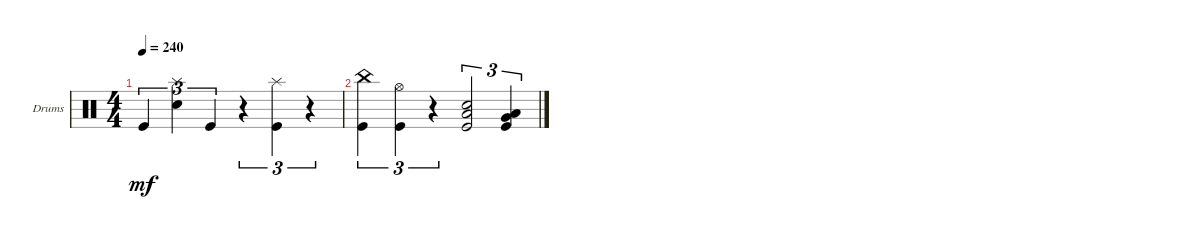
\defaultSystemsLayout 4
\bracketExtendMode groupsimilarinstruments
\firstSystemTrackNameOrientation horizontal
\otherSystemsTrackNameOrientation horizontal
\track ("Drumkit" "Drums") {instrument percussion}
\staff {score}
\articulation defaults
\ts (4 4)
\tempo 240
\clef neutral
\ks c "Kick (hit)".4{tu (3 2) dy mf}
("Snare (hit) 2" "Splash (hit)").4{tu (3 2)} "Kick (hit)".4{tu (3 2)} r.4{tu (3 2)} ("Kick (hit)" "Splash (hit)").4{tu (3 2)} r.4{tu (3 2)} |
("Kick (hit)" "China (hit)").4{tu (3 2)} ("Kick (hit)" "Hi-Hat (open)").4{tu (3 2)} r.4{tu (3 2)} ("Kick (hit)" "Snare (hit) 2" "Low Tom (hit)").2{tu (3 2)} ("Kick (hit)" "Very Low Tom (hit)" "Low Tom (hit)").4{tu (3 2)}
